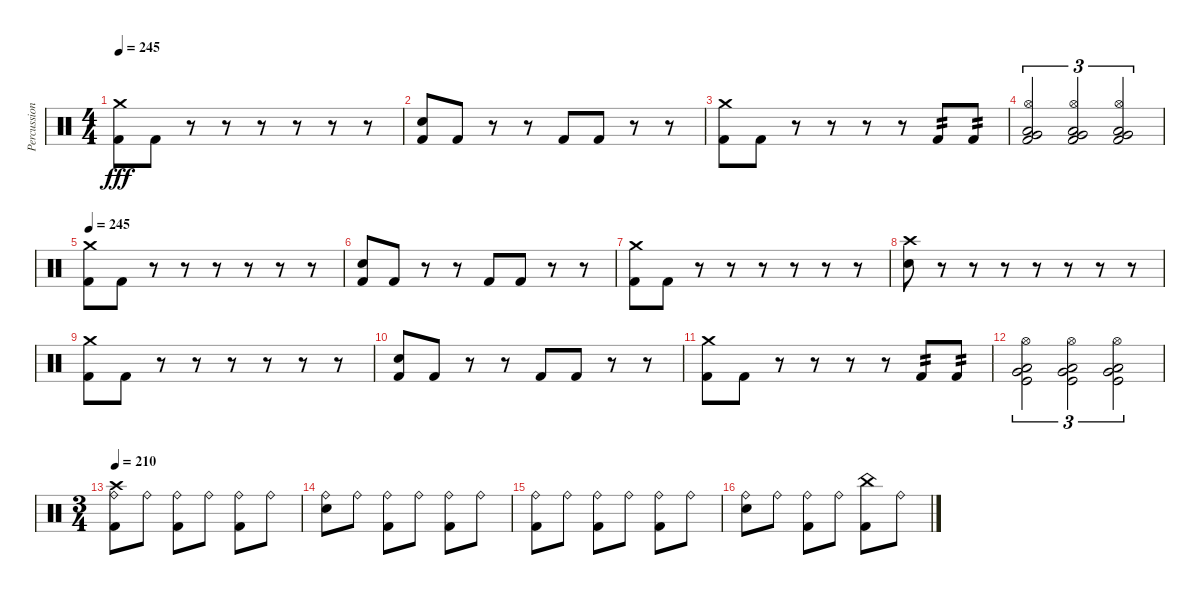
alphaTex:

\track ("Percussion" "Percussion") {instrument percussion}
\staff {score}
\articulation defaults
\ts (4 4)
\tempo 245
\clef neutral
\ks c
("Crash medium (hit)" "Kick (hit) 2").8{dy fff} "Kick (hit) 2".8 r.8 r.8 r.8 r.8 r.8 r.8 |
("Electric Snare (hit)" "Kick (hit) 2").8 "Kick (hit) 2".8 r.8 r.8 "Kick (hit) 2".8 "Kick (hit) 2".8 r.8 r.8 |
("Crash medium (hit)" "Kick (hit) 2").8 "Kick (hit) 2".8 r.8 r.8 r.8 r.8 "Kick (hit) 2".8{tp 2} "Kick (hit) 2".8{tp 2} |
("Hi-Hat (open)" "Very Low Tom (hit)" "Low Floor Tom (hit)" "Kick (hit) 2").2{tu (3 2)} ("Hi-Hat (open)" "Very Low Tom (hit)" "Low Floor Tom (hit)" "Kick (hit) 2").2{tu (3 2)} ("Hi-Hat (open)" "Very Low Tom (hit)" "Low Floor Tom (hit)" "Kick (hit) 2").2{tu (3 2)} |
\tempo 245
("Crash medium (hit)" "Kick (hit) 2").8 "Kick (hit) 2".8 r.8 r.8 r.8 r.8 r.8 r.8 |
("Electric Snare (hit)" "Kick (hit) 2").8 "Kick (hit) 2".8 r.8 r.8 "Kick (hit) 2".8 "Kick (hit) 2".8 r.8 r.8 |
("Crash medium (hit)" "Kick (hit) 2").8 "Kick (hit) 2".8 r.8 r.8 r.8 r.8 r.8 r.8 |
("Crash high (hit)" "Electric Snare (hit)").8 r.8 r.8 r.8 r.8 r.8 r.8 r.8 |
("Crash medium (hit)" "Kick (hit) 2").8 "Kick (hit) 2".8 r.8 r.8 r.8 r.8 r.8 r.8 |
("Electric Snare (hit)" "Kick (hit) 2").8 "Kick (hit) 2".8 r.8 r.8 "Kick (hit) 2".8 "Kick (hit) 2".8 r.8 r.8 |
("Crash medium (hit)" "Kick (hit) 2").8 "Kick (hit) 2".8 r.8 r.8 r.8 r.8 "Kick (hit) 2".8{tp 2} "Kick (hit) 2".8{tp 2} |
("Hi-Hat (open)" "Very Low Tom (hit)" "Low Floor Tom (hit)" "Kick (hit)").2{tu (3 2)} ("Hi-Hat (open)" "Very Low Tom (hit)" "Low Floor Tom (hit)" "Kick (hit)").2{tu (3 2)} ("Hi-Hat (open)" "Very Low Tom (hit)" "Low Floor Tom (hit)" "Kick (hit)").2{tu (3 2)} |
\ts (3 4)
\tempo 210
("Crash high (hit)" "Ride (bell)" "Kick (hit) 2").8 "Ride (bell)".8 ("Ride (bell)" "Kick (hit) 2").8 "Ride (bell)".8 ("Ride (bell)" "Kick (hit) 2").8 "Ride (bell)".8 |
("Ride (bell)" "Electric Snare (hit)").8 "Ride (bell)".8 ("Ride (bell)" "Kick (hit) 2").8 "Ride (bell)".8 ("Ride (bell)" "Kick (hit) 2").8 "Ride (bell)".8 |
("Ride (bell)" "Kick (hit) 2").8 "Ride (bell)".8 ("Ride (bell)" "Kick (hit) 2").8 "Ride (bell)".8 ("Ride (bell)" "Kick (hit) 2").8 "Ride (bell)".8 |
("Ride (bell)" "Electric Snare (hit)").8 "Ride (bell)".8 ("Ride (bell)" "Kick (hit) 2").8 "Ride (bell)".8 ("China (hit)" "Kick (hit) 2").8 "Ride (bell)".8
